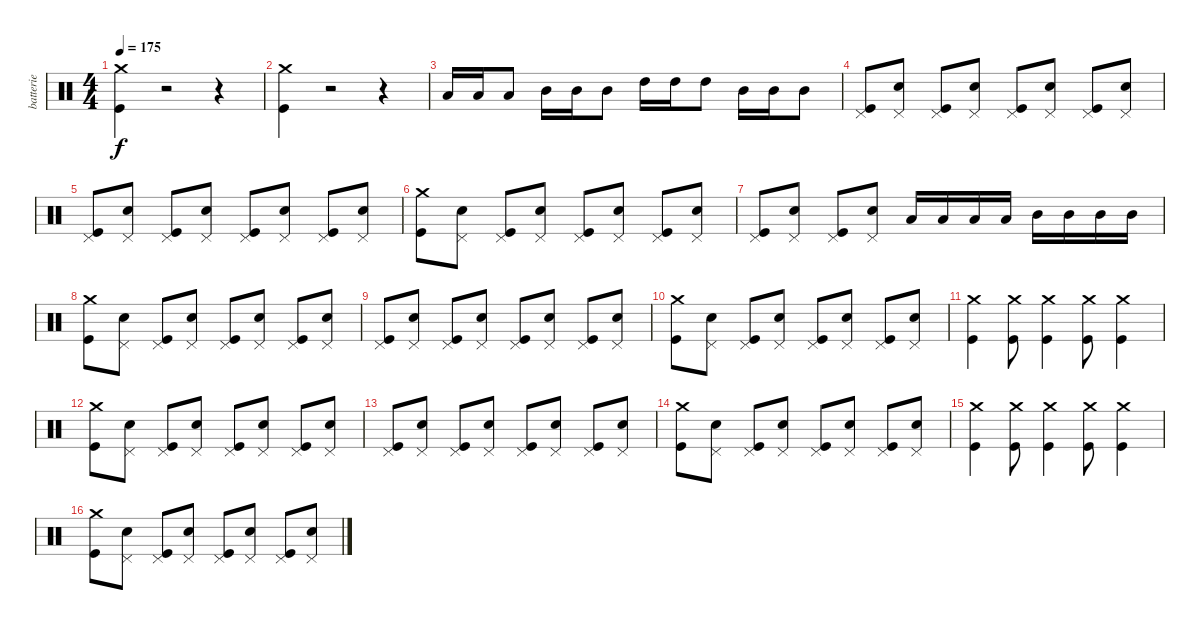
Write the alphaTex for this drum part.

\track ("batterie" "batterie") {instrument percussion}
\staff {score}
\articulation defaults
\ts (4 4)
\tempo 175
\clef neutral
\ks c
("Crash medium (hit)" "Kick (hit)").4{dy f} r.2 r.4 |
("Crash medium (hit)" "Kick (hit)").4 r.2 r.4 |
"Low Tom (hit)".16 "Low Tom (hit)".16 "Low Tom (hit)".8 "Mid Tom (hit)".16 "Mid Tom (hit)".16 "Mid Tom (hit)".8 "High Tom (hit)".16 "High Tom (hit)".16 "High Tom (hit)".8 "Mid Tom (hit)".16 "Mid Tom (hit)".16 "Mid Tom (hit)".8 |
("Pedal Hi-Hat (hit)" "Kick (hit)").8 ("Pedal Hi-Hat (hit)" "Snare (hit) 2").8 ("Pedal Hi-Hat (hit)" "Kick (hit)").8 ("Pedal Hi-Hat (hit)" "Snare (hit) 2").8 ("Pedal Hi-Hat (hit)" "Kick (hit)").8 ("Pedal Hi-Hat (hit)" "Snare (hit) 2").8 ("Pedal Hi-Hat (hit)" "Kick (hit)").8 ("Pedal Hi-Hat (hit)" "Snare (hit) 2").8 |
("Pedal Hi-Hat (hit)" "Kick (hit)").8 ("Pedal Hi-Hat (hit)" "Snare (hit) 2").8 ("Pedal Hi-Hat (hit)" "Kick (hit)").8 ("Pedal Hi-Hat (hit)" "Snare (hit) 2").8 ("Pedal Hi-Hat (hit)" "Kick (hit)").8 ("Pedal Hi-Hat (hit)" "Snare (hit) 2").8 ("Pedal Hi-Hat (hit)" "Kick (hit)").8 ("Pedal Hi-Hat (hit)" "Snare (hit) 2").8 |
("Crash medium (hit)" "Kick (hit)").8 ("Pedal Hi-Hat (hit)" "Snare (hit) 2").8 ("Pedal Hi-Hat (hit)" "Kick (hit)").8 ("Pedal Hi-Hat (hit)" "Snare (hit) 2").8 ("Pedal Hi-Hat (hit)" "Kick (hit)").8 ("Pedal Hi-Hat (hit)" "Snare (hit) 2").8 ("Pedal Hi-Hat (hit)" "Kick (hit)").8 ("Pedal Hi-Hat (hit)" "Snare (hit) 2").8 |
("Pedal Hi-Hat (hit)" "Kick (hit)").8 ("Pedal Hi-Hat (hit)" "Snare (hit) 2").8 ("Pedal Hi-Hat (hit)" "Kick (hit)").8 ("Pedal Hi-Hat (hit)" "Snare (hit) 2").8 "Low Tom (hit)".16 "Low Tom (hit)".16 "Low Tom (hit)".16 "Low Tom (hit)".16 "Mid Tom (hit)".16 "Mid Tom (hit)".16 "Mid Tom (hit)".16 "Mid Tom (hit)".16 |
("Crash medium (hit)" "Kick (hit)").8 ("Pedal Hi-Hat (hit)" "Snare (hit) 2").8 ("Pedal Hi-Hat (hit)" "Kick (hit)").8 ("Pedal Hi-Hat (hit)" "Snare (hit) 2").8 ("Pedal Hi-Hat (hit)" "Kick (hit)").8 ("Pedal Hi-Hat (hit)" "Snare (hit) 2").8 ("Pedal Hi-Hat (hit)" "Kick (hit)").8 ("Pedal Hi-Hat (hit)" "Snare (hit) 2").8 |
("Pedal Hi-Hat (hit)" "Kick (hit)").8 ("Pedal Hi-Hat (hit)" "Snare (hit) 2").8 ("Pedal Hi-Hat (hit)" "Kick (hit)").8 ("Pedal Hi-Hat (hit)" "Snare (hit) 2").8 ("Pedal Hi-Hat (hit)" "Kick (hit)").8 ("Pedal Hi-Hat (hit)" "Snare (hit) 2").8 ("Pedal Hi-Hat (hit)" "Kick (hit)").8 ("Pedal Hi-Hat (hit)" "Snare (hit) 2").8 |
("Crash medium (hit)" "Kick (hit)").8 ("Pedal Hi-Hat (hit)" "Snare (hit) 2").8 ("Pedal Hi-Hat (hit)" "Kick (hit)").8 ("Pedal Hi-Hat (hit)" "Snare (hit) 2").8 ("Pedal Hi-Hat (hit)" "Kick (hit)").8 ("Pedal Hi-Hat (hit)" "Snare (hit) 2").8 ("Pedal Hi-Hat (hit)" "Kick (hit)").8 ("Pedal Hi-Hat (hit)" "Snare (hit) 2").8 |
("Crash medium (hit)" "Kick (hit)").4 ("Crash medium (hit)" "Kick (hit)").8 ("Crash medium (hit)" "Kick (hit)").4 ("Crash medium (hit)" "Kick (hit)").8 ("Crash medium (hit)" "Kick (hit)").4 |
("Crash medium (hit)" "Kick (hit)").8 ("Pedal Hi-Hat (hit)" "Snare (hit) 2").8 ("Pedal Hi-Hat (hit)" "Kick (hit)").8 ("Pedal Hi-Hat (hit)" "Snare (hit) 2").8 ("Pedal Hi-Hat (hit)" "Kick (hit)").8 ("Pedal Hi-Hat (hit)" "Snare (hit) 2").8 ("Pedal Hi-Hat (hit)" "Kick (hit)").8 ("Pedal Hi-Hat (hit)" "Snare (hit) 2").8 |
("Pedal Hi-Hat (hit)" "Kick (hit)").8 ("Pedal Hi-Hat (hit)" "Snare (hit) 2").8 ("Pedal Hi-Hat (hit)" "Kick (hit)").8 ("Pedal Hi-Hat (hit)" "Snare (hit) 2").8 ("Pedal Hi-Hat (hit)" "Kick (hit)").8 ("Pedal Hi-Hat (hit)" "Snare (hit) 2").8 ("Pedal Hi-Hat (hit)" "Kick (hit)").8 ("Pedal Hi-Hat (hit)" "Snare (hit) 2").8 |
("Crash medium (hit)" "Kick (hit)").8 ("Pedal Hi-Hat (hit)" "Snare (hit) 2").8 ("Pedal Hi-Hat (hit)" "Kick (hit)").8 ("Pedal Hi-Hat (hit)" "Snare (hit) 2").8 ("Pedal Hi-Hat (hit)" "Kick (hit)").8 ("Pedal Hi-Hat (hit)" "Snare (hit) 2").8 ("Pedal Hi-Hat (hit)" "Kick (hit)").8 ("Pedal Hi-Hat (hit)" "Snare (hit) 2").8 |
("Crash medium (hit)" "Kick (hit)").4 ("Crash medium (hit)" "Kick (hit)").8 ("Crash medium (hit)" "Kick (hit)").4 ("Crash medium (hit)" "Kick (hit)").8 ("Crash medium (hit)" "Kick (hit)").4 |
("Crash medium (hit)" "Kick (hit)").8 ("Pedal Hi-Hat (hit)" "Snare (hit) 2").8 ("Pedal Hi-Hat (hit)" "Kick (hit)").8 ("Pedal Hi-Hat (hit)" "Snare (hit) 2").8 ("Pedal Hi-Hat (hit)" "Kick (hit)").8 ("Pedal Hi-Hat (hit)" "Snare (hit) 2").8 ("Pedal Hi-Hat (hit)" "Kick (hit)").8 ("Pedal Hi-Hat (hit)" "Snare (hit) 2").8
